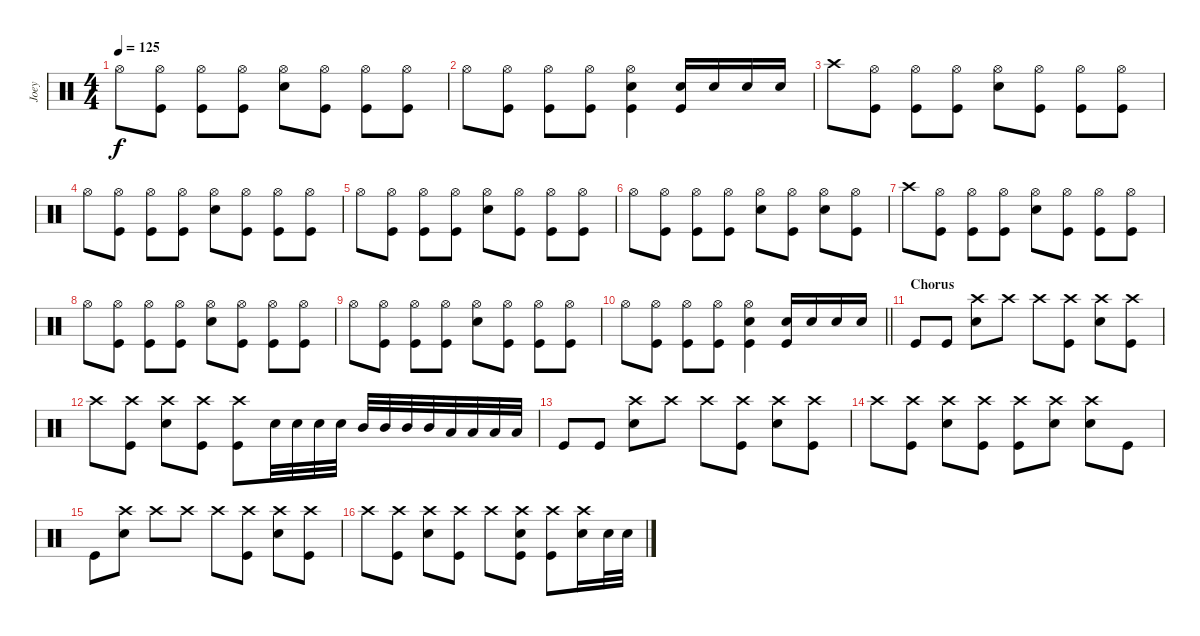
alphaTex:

\track ("Joey" "Joey") {instrument percussion}
\staff {score}
\articulation defaults
\ts (4 4)
\tempo 125
\clef neutral
\ks c "Hi-Hat (open)".8{dy f}
("Hi-Hat (open)" "Kick (hit)").8 ("Hi-Hat (open)" "Kick (hit)").8 ("Hi-Hat (open)" "Kick (hit)").8 ("Hi-Hat (open)" "Snare (hit) 2").8 ("Hi-Hat (open)" "Kick (hit)").8 ("Hi-Hat (open)" "Kick (hit)").8 ("Hi-Hat (open)" "Kick (hit)").8 |
"Hi-Hat (open)".8 ("Hi-Hat (open)" "Kick (hit)").8 ("Hi-Hat (open)" "Kick (hit)").8 ("Hi-Hat (open)" "Kick (hit)").8 ("Hi-Hat (open)" "Snare (hit) 2" "Kick (hit)").4 ("Snare (hit) 2" "Kick (hit)").16 "Snare (hit) 2".16 "Snare (hit) 2".16 "Snare (hit) 2".16 |
"Crash high (hit)".8 ("Hi-Hat (open)" "Kick (hit)").8 ("Hi-Hat (open)" "Kick (hit)").8 ("Hi-Hat (open)" "Kick (hit)").8 ("Hi-Hat (open)" "Snare (hit) 2").8 ("Hi-Hat (open)" "Kick (hit)").8 ("Hi-Hat (open)" "Kick (hit)").8 ("Hi-Hat (open)" "Kick (hit)").8 |
"Hi-Hat (open)".8 ("Hi-Hat (open)" "Kick (hit)").8 ("Hi-Hat (open)" "Kick (hit)").8 ("Hi-Hat (open)" "Kick (hit)").8 ("Hi-Hat (open)" "Snare (hit) 2").8 ("Hi-Hat (open)" "Kick (hit)").8 ("Hi-Hat (open)" "Kick (hit)").8 ("Hi-Hat (open)" "Kick (hit)").8 |
"Hi-Hat (open)".8 ("Hi-Hat (open)" "Kick (hit)").8 ("Hi-Hat (open)" "Kick (hit)").8 ("Hi-Hat (open)" "Kick (hit)").8 ("Hi-Hat (open)" "Snare (hit) 2").8 ("Hi-Hat (open)" "Kick (hit)").8 ("Hi-Hat (open)" "Kick (hit)").8 ("Hi-Hat (open)" "Kick (hit)").8 |
"Hi-Hat (open)".8 ("Hi-Hat (open)" "Kick (hit)").8 ("Hi-Hat (open)" "Kick (hit)").8 ("Hi-Hat (open)" "Kick (hit)").8 ("Hi-Hat (open)" "Snare (hit) 2").8 ("Hi-Hat (open)" "Kick (hit)").8 ("Hi-Hat (open)" "Snare (hit) 2").8 ("Hi-Hat (open)" "Kick (hit)").8 |
"Crash high (hit)".8 ("Hi-Hat (open)" "Kick (hit)").8 ("Hi-Hat (open)" "Kick (hit)").8 ("Hi-Hat (open)" "Kick (hit)").8 ("Hi-Hat (open)" "Snare (hit) 2").8 ("Hi-Hat (open)" "Kick (hit)").8 ("Hi-Hat (open)" "Kick (hit)").8 ("Hi-Hat (open)" "Kick (hit)").8 |
"Hi-Hat (open)".8 ("Hi-Hat (open)" "Kick (hit)").8 ("Hi-Hat (open)" "Kick (hit)").8 ("Hi-Hat (open)" "Kick (hit)").8 ("Hi-Hat (open)" "Snare (hit) 2").8 ("Hi-Hat (open)" "Kick (hit)").8 ("Hi-Hat (open)" "Kick (hit)").8 ("Hi-Hat (open)" "Kick (hit)").8 |
"Hi-Hat (open)".8 ("Hi-Hat (open)" "Kick (hit)").8 ("Hi-Hat (open)" "Kick (hit)").8 ("Hi-Hat (open)" "Kick (hit)").8 ("Hi-Hat (open)" "Snare (hit) 2").8 ("Hi-Hat (open)" "Kick (hit)").8 ("Hi-Hat (open)" "Kick (hit)").8 ("Hi-Hat (open)" "Kick (hit)").8 |
\barLineRight lightlight "Hi-Hat (open)".8
("Hi-Hat (open)" "Kick (hit)").8 ("Hi-Hat (open)" "Kick (hit)").8 ("Hi-Hat (open)" "Kick (hit)").8 ("Hi-Hat (open)" "Snare (hit) 2" "Kick (hit)").4 ("Snare (hit) 2" "Kick (hit)").16 "Snare (hit) 2".16 "Snare (hit) 2".16 "Snare (hit) 2".16 |
\section ("" "Chorus")
"Kick (hit)".8 "Kick (hit)".8 ("Crash high (hit)" "Snare (hit) 2").8 "Crash high (hit)".8 "Crash high (hit)".8 ("Crash high (hit)" "Kick (hit)").8 ("Crash high (hit)" "Snare (hit) 2").8 ("Crash high (hit)" "Kick (hit)").8 |
"Crash high (hit)".8 ("Crash high (hit)" "Kick (hit)").8 ("Crash high (hit)" "Snare (hit) 2").8 ("Crash high (hit)" "Kick (hit)").8 ("Crash high (hit)" "Kick (hit)").8 "Snare (hit) 2".32 "Snare (hit) 2".32 "Snare (hit) 2".32 "Snare (hit) 2".32 "Mid Tom (hit)".32 "Mid Tom (hit)".32 "Mid Tom (hit)".32 "Mid Tom (hit)".32 "Low Tom (hit)".32 "Low Tom (hit)".32 "Low Tom (hit)".32 "Low Tom (hit)".32 |
"Kick (hit)".8 "Kick (hit)".8 ("Crash high (hit)" "Snare (hit) 2").8 "Crash high (hit)".8 "Crash high (hit)".8 ("Crash high (hit)" "Kick (hit)").8 ("Crash high (hit)" "Snare (hit) 2").8 ("Crash high (hit)" "Kick (hit)").8 |
"Crash high (hit)".8 ("Crash high (hit)" "Kick (hit)").8 ("Crash high (hit)" "Snare (hit) 2").8 ("Crash high (hit)" "Kick (hit)").8 ("Crash high (hit)" "Kick (hit)").8 ("Crash high (hit)" "Snare (hit) 2").8 ("Crash high (hit)" "Snare (hit) 2").8 "Kick (hit)".8 |
"Kick (hit)".8 ("Crash high (hit)" "Snare (hit) 2").8 "Crash high (hit)".8 "Crash high (hit)".8 "Crash high (hit)".8 ("Crash high (hit)" "Kick (hit)").8 ("Crash high (hit)" "Snare (hit) 2").8 ("Crash high (hit)" "Kick (hit)").8 |
"Crash high (hit)".8 ("Crash high (hit)" "Kick (hit)").8 ("Crash high (hit)" "Snare (hit) 2").8 ("Crash high (hit)" "Kick (hit)").8 "Crash high (hit)".8 ("Crash high (hit)" "Snare (hit) 2" "Kick (hit)").8 ("Crash high (hit)" "Kick (hit)").8 ("Crash high (hit)" "Snare (hit) 2").16 "Snare (hit) 2".32 "Snare (hit) 2".32
